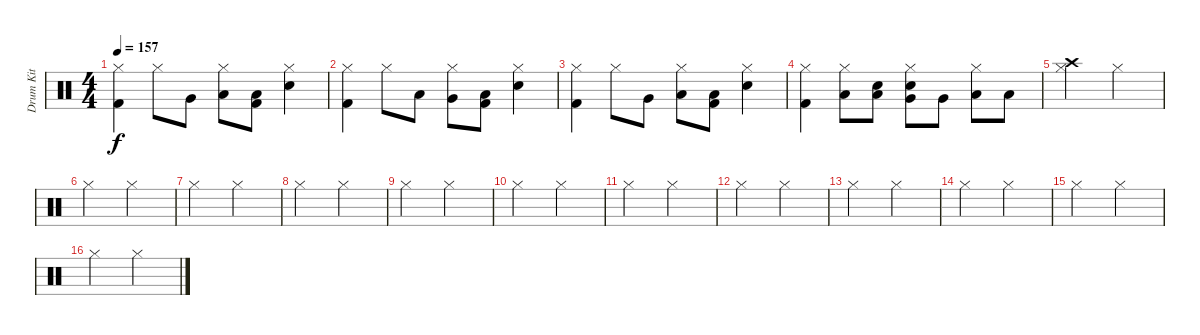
\track ("Drum Kit" "Drum Kit") {instrument percussion}
\staff {score}
\articulation defaults
\ts (4 4)
\tempo 157
\clef neutral
\ks c
("Hi-Hat (closed)" "Kick (hit) 2").4{dy f} "Hi-Hat (closed)".8 "Very Low Tom (hit)".8 ("Hi-Hat (closed)" "Low Floor Tom (hit)").8 ("Kick (hit) 2" "Low Floor Tom (hit)").8 ("Hi-Hat (closed)" "Snare (hit) 2").4 |
("Hi-Hat (closed)" "Kick (hit) 2").4 "Hi-Hat (closed)".8 "Low Tom (hit)".8 ("Hi-Hat (closed)" "Very Low Tom (hit)").8 ("Kick (hit) 2" "Low Floor Tom (hit)").8 ("Hi-Hat (closed)" "Snare (hit) 2").4 |
("Hi-Hat (closed)" "Kick (hit) 2").4 "Hi-Hat (closed)".8 "Very Low Tom (hit)".8 ("Hi-Hat (closed)" "Low Floor Tom (hit)").8 ("Kick (hit) 2" "Low Floor Tom (hit)").8 ("Hi-Hat (closed)" "Snare (hit) 2").4 |
("Hi-Hat (closed)" "Kick (hit) 2").4 ("Hi-Hat (closed)" "Low Tom (hit)").8 ("Snare (hit) 2" "Low Tom (hit)").8 ("Hi-Hat (closed)" "Snare (hit) 2" "Very Low Tom (hit)").8 "Very Low Tom (hit)".8 ("Hi-Hat (closed)" "Low Floor Tom (hit)").8 "Low Floor Tom (hit)".8 |
("Crash high (hit)" "Hi-Hat (closed)").2 "Hi-Hat (closed)".2 |
"Hi-Hat (closed)".2 "Hi-Hat (closed)".2 |
"Hi-Hat (closed)".2 "Hi-Hat (closed)".2 |
"Hi-Hat (closed)".2 "Hi-Hat (closed)".2 |
"Hi-Hat (closed)".2 "Hi-Hat (closed)".2 |
"Hi-Hat (closed)".2 "Hi-Hat (closed)".2 |
"Hi-Hat (closed)".2 "Hi-Hat (closed)".2 |
"Hi-Hat (closed)".2 "Hi-Hat (closed)".2 |
"Hi-Hat (closed)".2 "Hi-Hat (closed)".2 |
"Hi-Hat (closed)".2 "Hi-Hat (closed)".2 |
"Hi-Hat (closed)".2 "Hi-Hat (closed)".2 |
"Hi-Hat (closed)".2 "Hi-Hat (closed)".2
